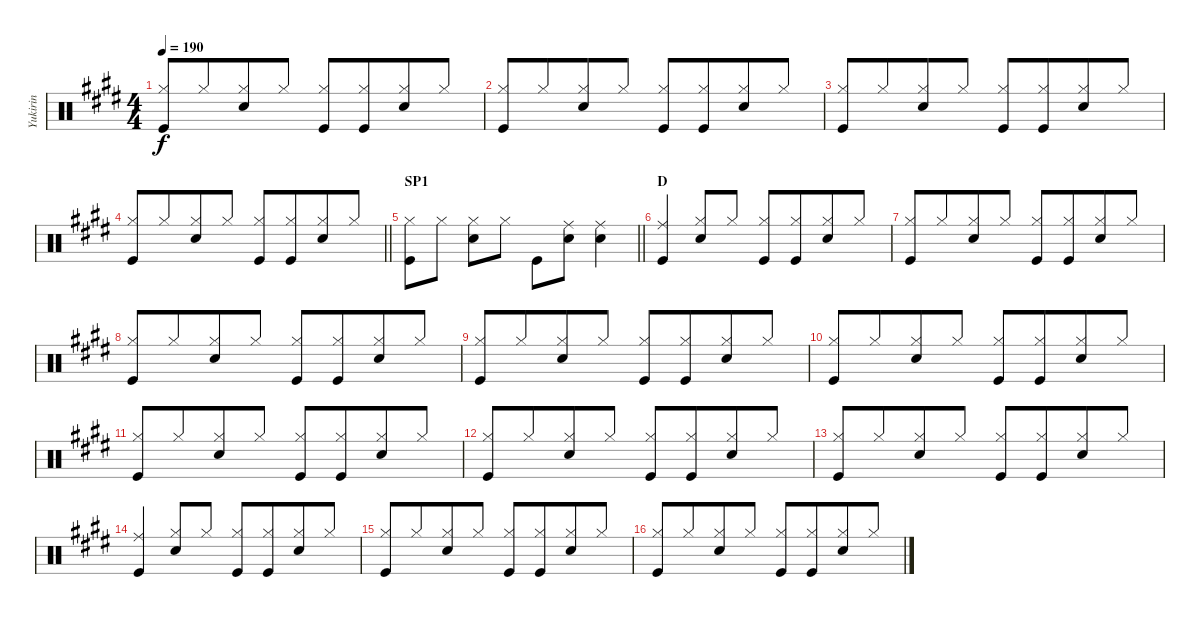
\track ("Yukirin" "Yukirin") {mute instrument percussion}
\staff {score}
\articulation defaults
\ts (4 4)
\tempo 190
\clef neutral
\ks e
("Hi-Hat (closed)" "Kick (hit)").8{dy f beam Up} "Hi-Hat (closed)".8{beam Up beam merge} ("Hi-Hat (closed)" "Snare (hit) 2").8{beam Up} "Hi-Hat (closed)".8{beam Up} ("Hi-Hat (closed)" "Kick (hit)").8{beam Up} ("Hi-Hat (closed)" "Kick (hit)").8{beam Up beam merge} ("Hi-Hat (closed)" "Snare (hit) 2").8{beam Up} "Hi-Hat (closed)".8{beam Up} |
("Hi-Hat (closed)" "Kick (hit)").8{beam Up} "Hi-Hat (closed)".8{beam Up beam merge} ("Hi-Hat (closed)" "Snare (hit) 2").8{beam Up} "Hi-Hat (closed)".8{beam Up} ("Hi-Hat (closed)" "Kick (hit)").8{beam Up} ("Hi-Hat (closed)" "Kick (hit)").8{beam Up beam merge} ("Hi-Hat (closed)" "Snare (hit) 2").8{beam Up} "Hi-Hat (closed)".8{beam Up} |
("Hi-Hat (closed)" "Kick (hit)").8{beam Up} "Hi-Hat (closed)".8{beam Up beam merge} ("Hi-Hat (closed)" "Snare (hit) 2").8{beam Up} "Hi-Hat (closed)".8{beam Up} ("Hi-Hat (closed)" "Kick (hit)").8{beam Up} ("Hi-Hat (closed)" "Kick (hit)").8{beam Up beam merge} ("Hi-Hat (closed)" "Snare (hit) 2").8{beam Up} "Hi-Hat (closed)".8{beam Up} |
\barLineRight lightlight
("Hi-Hat (closed)" "Kick (hit)").8{beam Up} "Hi-Hat (closed)".8{beam Up beam merge} ("Hi-Hat (closed)" "Snare (hit) 2").8{beam Up} "Hi-Hat (closed)".8{beam Up} ("Hi-Hat (closed)" "Kick (hit)").8{beam Up} ("Hi-Hat (closed)" "Kick (hit)").8{beam Up beam merge} ("Hi-Hat (closed)" "Snare (hit) 2").8{beam Up} "Hi-Hat (closed)".8{beam Up} |
\section ("" "SP1")
\barLineRight lightlight
("Hi-Hat (closed)" "Kick (hit)").8 "Hi-Hat (closed)".8 ("Hi-Hat (closed)" "Snare (hit) 2").8 "Hi-Hat (closed)".8 "Kick (hit)".8 ("Ride (middle)" "Snare (hit) 2").8 ("Ride (middle)" "Snare (hit) 2").4 |
\section ("" "D")
("Ride (middle)" "Kick (hit)").4{beam Up} ("Hi-Hat (closed)" "Snare (hit) 2").8{beam Up} "Hi-Hat (closed)".8{beam Up} ("Hi-Hat (closed)" "Kick (hit)").8{beam Up} ("Hi-Hat (closed)" "Kick (hit)").8{beam Up beam merge} ("Hi-Hat (closed)" "Snare (hit) 2").8{beam Up} "Hi-Hat (closed)".8{beam Up} |
("Hi-Hat (closed)" "Kick (hit)").8{beam Up} "Hi-Hat (closed)".8{beam Up beam merge} ("Hi-Hat (closed)" "Snare (hit) 2").8{beam Up} "Hi-Hat (closed)".8{beam Up} ("Hi-Hat (closed)" "Kick (hit)").8{beam Up} ("Hi-Hat (closed)" "Kick (hit)").8{beam Up beam merge} ("Hi-Hat (closed)" "Snare (hit) 2").8{beam Up} "Hi-Hat (closed)".8{beam Up} |
("Hi-Hat (closed)" "Kick (hit)").8{beam Up} "Hi-Hat (closed)".8{beam Up beam merge} ("Hi-Hat (closed)" "Snare (hit) 2").8{beam Up} "Hi-Hat (closed)".8{beam Up} ("Hi-Hat (closed)" "Kick (hit)").8{beam Up} ("Hi-Hat (closed)" "Kick (hit)").8{beam Up beam merge} ("Hi-Hat (closed)" "Snare (hit) 2").8{beam Up} "Hi-Hat (closed)".8{beam Up} |
("Hi-Hat (closed)" "Kick (hit)").8{beam Up} "Hi-Hat (closed)".8{beam Up beam merge} ("Hi-Hat (closed)" "Snare (hit) 2").8{beam Up} "Hi-Hat (closed)".8{beam Up} ("Hi-Hat (closed)" "Kick (hit)").8{beam Up} ("Hi-Hat (closed)" "Kick (hit)").8{beam Up beam merge} ("Hi-Hat (closed)" "Snare (hit) 2").8{beam Up} "Hi-Hat (closed)".8{beam Up} |
("Hi-Hat (closed)" "Kick (hit)").8{beam Up} "Hi-Hat (closed)".8{beam Up beam merge} ("Hi-Hat (closed)" "Snare (hit) 2").8{beam Up} "Hi-Hat (closed)".8{beam Up} ("Hi-Hat (closed)" "Kick (hit)").8{beam Up} ("Hi-Hat (closed)" "Kick (hit)").8{beam Up beam merge} ("Hi-Hat (closed)" "Snare (hit) 2").8{beam Up} "Hi-Hat (closed)".8{beam Up} |
("Hi-Hat (closed)" "Kick (hit)").8{beam Up} "Hi-Hat (closed)".8{beam Up beam merge} ("Hi-Hat (closed)" "Snare (hit) 2").8{beam Up} "Hi-Hat (closed)".8{beam Up} ("Hi-Hat (closed)" "Kick (hit)").8{beam Up} ("Hi-Hat (closed)" "Kick (hit)").8{beam Up beam merge} ("Hi-Hat (closed)" "Snare (hit) 2").8{beam Up} "Hi-Hat (closed)".8{beam Up} |
("Hi-Hat (closed)" "Kick (hit)").8{beam Up} "Hi-Hat (closed)".8{beam Up beam merge} ("Hi-Hat (closed)" "Snare (hit) 2").8{beam Up} "Hi-Hat (closed)".8{beam Up} ("Hi-Hat (closed)" "Kick (hit)").8{beam Up} ("Hi-Hat (closed)" "Kick (hit)").8{beam Up beam merge} ("Hi-Hat (closed)" "Snare (hit) 2").8{beam Up} "Hi-Hat (closed)".8{beam Up} |
("Hi-Hat (closed)" "Kick (hit)").8{beam Up} "Hi-Hat (closed)".8{beam Up beam merge} ("Hi-Hat (closed)" "Snare (hit) 2").8{beam Up} "Hi-Hat (closed)".8{beam Up} ("Hi-Hat (closed)" "Kick (hit)").8{beam Up} ("Hi-Hat (closed)" "Kick (hit)").8{beam Up beam merge} ("Hi-Hat (closed)" "Snare (hit) 2").8{beam Up} "Hi-Hat (closed)".8{beam Up} |
("Ride (middle)" "Kick (hit)").4{beam Up} ("Hi-Hat (closed)" "Snare (hit) 2").8{beam Up} "Hi-Hat (closed)".8{beam Up} ("Hi-Hat (closed)" "Kick (hit)").8{beam Up} ("Hi-Hat (closed)" "Kick (hit)").8{beam Up beam merge} ("Hi-Hat (closed)" "Snare (hit) 2").8{beam Up} "Hi-Hat (closed)".8{beam Up} |
("Hi-Hat (closed)" "Kick (hit)").8{beam Up} "Hi-Hat (closed)".8{beam Up beam merge} ("Hi-Hat (closed)" "Snare (hit) 2").8{beam Up} "Hi-Hat (closed)".8{beam Up} ("Hi-Hat (closed)" "Kick (hit)").8{beam Up} ("Hi-Hat (closed)" "Kick (hit)").8{beam Up beam merge} ("Hi-Hat (closed)" "Snare (hit) 2").8{beam Up} "Hi-Hat (closed)".8{beam Up} |
("Hi-Hat (closed)" "Kick (hit)").8{beam Up} "Hi-Hat (closed)".8{beam Up beam merge} ("Hi-Hat (closed)" "Snare (hit) 2").8{beam Up} "Hi-Hat (closed)".8{beam Up} ("Hi-Hat (closed)" "Kick (hit)").8{beam Up} ("Hi-Hat (closed)" "Kick (hit)").8{beam Up beam merge} ("Hi-Hat (closed)" "Snare (hit) 2").8{beam Up} "Hi-Hat (closed)".8{beam Up}
